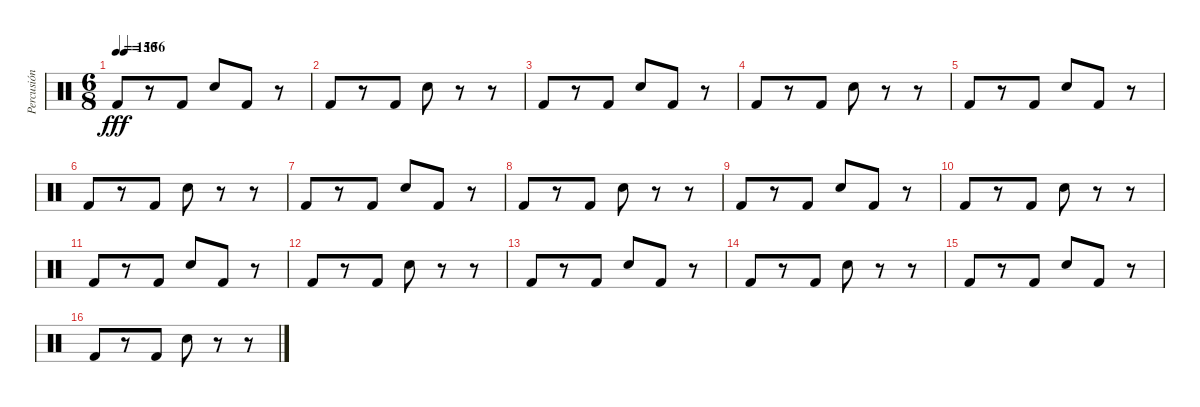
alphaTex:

\track ("Percusión" "Percusión") {instrument percussion}
\staff {score}
\articulation defaults
\ts (6 8)
\tempo 150
\tempo (156 0.041666666666666664)
\clef neutral
\ks c "Kick (hit) 2".8{dy fff}
r.8 "Kick (hit) 2".8 "Snare (hit) 2".8 "Kick (hit) 2".8 r.8 |
"Kick (hit) 2".8 r.8 "Kick (hit) 2".8 "Snare (hit) 2".8 r.8 r.8 |
"Kick (hit) 2".8 r.8 "Kick (hit) 2".8 "Snare (hit) 2".8 "Kick (hit) 2".8 r.8 |
"Kick (hit) 2".8 r.8 "Kick (hit) 2".8 "Snare (hit) 2".8 r.8 r.8 |
"Kick (hit) 2".8 r.8 "Kick (hit) 2".8 "Snare (hit) 2".8 "Kick (hit) 2".8 r.8 |
"Kick (hit) 2".8 r.8 "Kick (hit) 2".8 "Snare (hit) 2".8 r.8 r.8 |
"Kick (hit) 2".8 r.8 "Kick (hit) 2".8 "Snare (hit) 2".8 "Kick (hit) 2".8 r.8 |
"Kick (hit) 2".8 r.8 "Kick (hit) 2".8 "Snare (hit) 2".8 r.8 r.8 |
"Kick (hit) 2".8 r.8 "Kick (hit) 2".8 "Snare (hit) 2".8 "Kick (hit) 2".8 r.8 |
"Kick (hit) 2".8 r.8 "Kick (hit) 2".8 "Snare (hit) 2".8 r.8 r.8 |
"Kick (hit) 2".8 r.8 "Kick (hit) 2".8 "Snare (hit) 2".8 "Kick (hit) 2".8 r.8 |
"Kick (hit) 2".8 r.8 "Kick (hit) 2".8 "Snare (hit) 2".8 r.8 r.8 |
"Kick (hit) 2".8 r.8 "Kick (hit) 2".8 "Snare (hit) 2".8 "Kick (hit) 2".8 r.8 |
"Kick (hit) 2".8 r.8 "Kick (hit) 2".8 "Snare (hit) 2".8 r.8 r.8 |
"Kick (hit) 2".8 r.8 "Kick (hit) 2".8 "Snare (hit) 2".8 "Kick (hit) 2".8 r.8 |
"Kick (hit) 2".8 r.8 "Kick (hit) 2".8 "Snare (hit) 2".8 r.8 r.8
